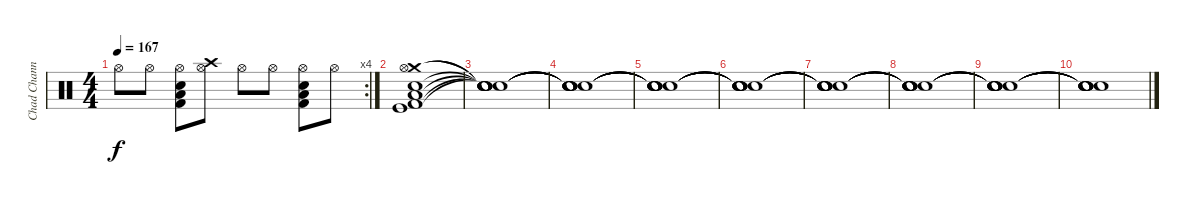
\track ("Chad Channing" "Chad Chann") {instrument percussion}
\staff {score}
\articulation defaults
\rc 4
\ts (4 4)
\tempo 167
\clef neutral
\ks c "Hi-Hat (open)".8{dy f} "Hi-Hat (open)".8
("Snare (hit) 2" "Low Tom (hit)" "Hi-Hat (open)" "Kick (hit) 2").8 ("Crash high (hit)" "Hi-Hat (open)").8 "Hi-Hat (open)".8 "Hi-Hat (open)".8 ("Snare (hit) 2" "Low Tom (hit)" "Hi-Hat (open)" "Kick (hit) 2").8 "Hi-Hat (open)".8 |
("Kick (hit)" "Crash medium (hit)" "Snare (hit) 2" "Low Tom (hit)" "Hi-Hat (open)" "Kick (hit) 2").1 |
("Snare (hit)"{t} "Snare (hit)"{t} "Snare (hit)"{t} "Snare (hit)"{t} "Snare (hit)"{t} "Snare (hit)"{t}).1 |
("Snare (hit)"{t} "Snare (hit)"{t} "Snare (hit)"{t} "Snare (hit)"{t} "Snare (hit)"{t} "Snare (hit)"{t}).1 |
("Snare (hit)"{t} "Snare (hit)"{t} "Snare (hit)"{t} "Snare (hit)"{t} "Snare (hit)"{t} "Snare (hit)"{t}).1 |
("Snare (hit)"{t} "Snare (hit)"{t} "Snare (hit)"{t} "Snare (hit)"{t} "Snare (hit)"{t} "Snare (hit)"{t}).1 |
("Snare (hit)"{t} "Snare (hit)"{t} "Snare (hit)"{t} "Snare (hit)"{t} "Snare (hit)"{t} "Snare (hit)"{t}).1 |
("Snare (hit)"{t} "Snare (hit)"{t} "Snare (hit)"{t} "Snare (hit)"{t} "Snare (hit)"{t} "Snare (hit)"{t}).1 |
("Snare (hit)"{t} "Snare (hit)"{t} "Snare (hit)"{t} "Snare (hit)"{t} "Snare (hit)"{t} "Snare (hit)"{t}).1 |
("Snare (hit)"{t} "Snare (hit)"{t} "Snare (hit)"{t} "Snare (hit)"{t} "Snare (hit)"{t} "Snare (hit)"{t}).1
